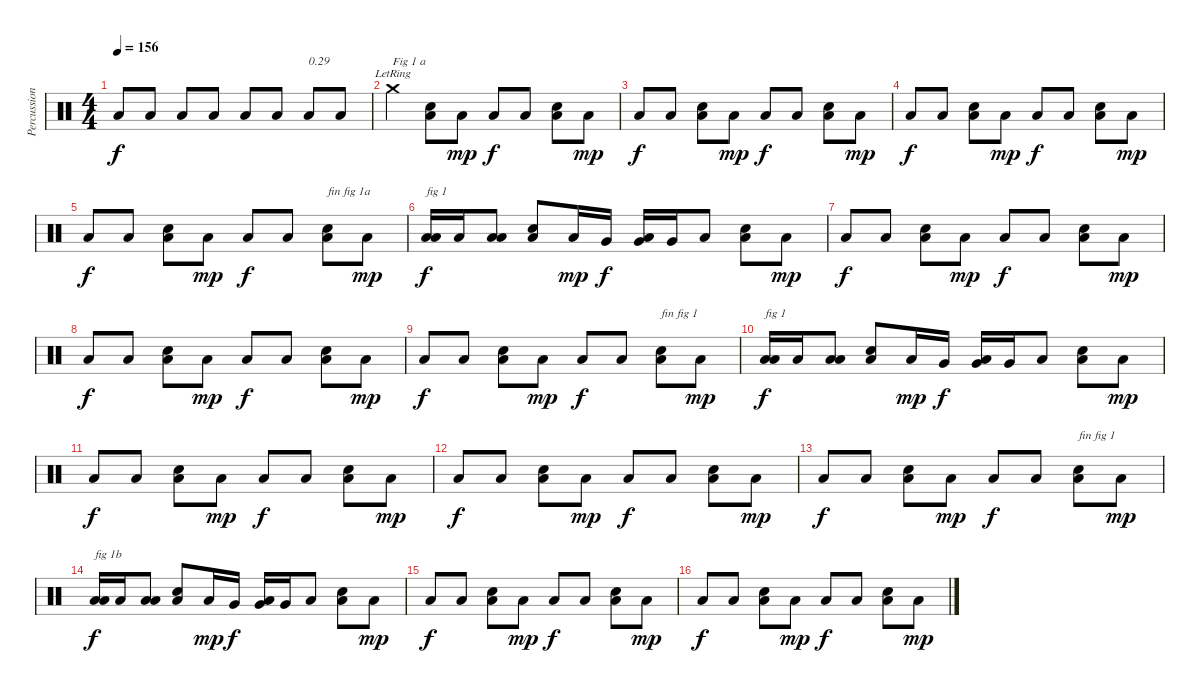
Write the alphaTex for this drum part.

\track ("Percussions" "Percussion") {instrument percussion}
\staff {score}
\articulation defaults
\ts (4 4)
\tempo 156
\clef neutral
\ks c "Low Tom (hit)".8{dy f} "Low Tom (hit)".8 "Low Tom (hit)".8 "Low Tom (hit)".8 "Low Tom (hit)".8 "Low Tom (hit)".8 "Low Tom (hit)".8{txt "0.29"} "Low Tom (hit)".8
|
"Crash medium (hit)"{lr}.4{txt "Fig 1 a"} ("Low Floor Tom (hit)" "Snare (hit) 2").8 "Low Floor Tom (hit)".8{dy mp} "Low Floor Tom (hit)".8{dy f} "Low Floor Tom (hit)".8 ("Low Floor Tom (hit)" "Snare (hit) 2").8 "Low Floor Tom (hit)".8{dy mp} |
"Low Floor Tom (hit)".8{dy f} "Low Floor Tom (hit)".8 ("Low Floor Tom (hit)" "Snare (hit) 2").8 "Low Floor Tom (hit)".8{dy mp} "Low Floor Tom (hit)".8{dy f} "Low Floor Tom (hit)".8 ("Low Floor Tom (hit)" "Snare (hit) 2").8 "Low Floor Tom (hit)".8{dy mp} |
"Low Floor Tom (hit)".8{dy f} "Low Floor Tom (hit)".8 ("Low Floor Tom (hit)" "Snare (hit) 2").8 "Low Floor Tom (hit)".8{dy mp} "Low Floor Tom (hit)".8{dy f} "Low Floor Tom (hit)".8 ("Low Floor Tom (hit)" "Snare (hit) 2").8 "Low Floor Tom (hit)".8{dy mp} |
"Low Floor Tom (hit)".8{dy f} "Low Floor Tom (hit)".8 ("Low Floor Tom (hit)" "Snare (hit) 2").8 "Low Floor Tom (hit)".8{dy mp} "Low Floor Tom (hit)".8{dy f} "Low Floor Tom (hit)".8 ("Low Floor Tom (hit)" "Snare (hit) 2").8{txt "fin fig 1a"} "Low Floor Tom (hit)".8{dy mp} |
("Low Floor Tom (hit)" "Low Tom (hit)").16{txt "fig 1" dy f} "Low Tom (hit)".16 ("Low Floor Tom (hit)" "Low Tom (hit)").8 ("Low Floor Tom (hit)" "Snare (hit) 2").8 "Low Floor Tom (hit)".16{dy mp} "Very Low Tom (hit)".16{dy f} ("Low Floor Tom (hit)" "Very Low Tom (hit)").16 "Very Low Tom (hit)".16 "Low Floor Tom (hit)".8 ("Low Floor Tom (hit)" "Snare (hit) 2").8 "Low Floor Tom (hit)".8{dy mp} |
"Low Floor Tom (hit)".8{dy f} "Low Floor Tom (hit)".8 ("Low Floor Tom (hit)" "Snare (hit) 2").8 "Low Floor Tom (hit)".8{dy mp} "Low Floor Tom (hit)".8{dy f} "Low Floor Tom (hit)".8 ("Low Floor Tom (hit)" "Snare (hit) 2").8 "Low Floor Tom (hit)".8{dy mp} |
"Low Floor Tom (hit)".8{dy f} "Low Floor Tom (hit)".8 ("Low Floor Tom (hit)" "Snare (hit) 2").8 "Low Floor Tom (hit)".8{dy mp} "Low Floor Tom (hit)".8{dy f} "Low Floor Tom (hit)".8 ("Low Floor Tom (hit)" "Snare (hit) 2").8 "Low Floor Tom (hit)".8{dy mp} |
"Low Floor Tom (hit)".8{dy f} "Low Floor Tom (hit)".8 ("Low Floor Tom (hit)" "Snare (hit) 2").8 "Low Floor Tom (hit)".8{dy mp} "Low Floor Tom (hit)".8{dy f} "Low Floor Tom (hit)".8 ("Low Floor Tom (hit)" "Snare (hit) 2").8{txt "fin fig 1"} "Low Floor Tom (hit)".8{dy mp} |
("Low Floor Tom (hit)" "Low Tom (hit)").16{txt "fig 1" dy f} "Low Tom (hit)".16 ("Low Floor Tom (hit)" "Low Tom (hit)").8 ("Low Floor Tom (hit)" "Snare (hit) 2").8 "Low Floor Tom (hit)".16{dy mp} "Very Low Tom (hit)".16{dy f} ("Low Floor Tom (hit)" "Very Low Tom (hit)").16 "Very Low Tom (hit)".16 "Low Floor Tom (hit)".8 ("Low Floor Tom (hit)" "Snare (hit) 2").8 "Low Floor Tom (hit)".8{dy mp} |
"Low Floor Tom (hit)".8{dy f} "Low Floor Tom (hit)".8 ("Low Floor Tom (hit)" "Snare (hit) 2").8 "Low Floor Tom (hit)".8{dy mp} "Low Floor Tom (hit)".8{dy f} "Low Floor Tom (hit)".8 ("Low Floor Tom (hit)" "Snare (hit) 2").8 "Low Floor Tom (hit)".8{dy mp} |
"Low Floor Tom (hit)".8{dy f} "Low Floor Tom (hit)".8 ("Low Floor Tom (hit)" "Snare (hit) 2").8 "Low Floor Tom (hit)".8{dy mp} "Low Floor Tom (hit)".8{dy f} "Low Floor Tom (hit)".8 ("Low Floor Tom (hit)" "Snare (hit) 2").8 "Low Floor Tom (hit)".8{dy mp} |
"Low Floor Tom (hit)".8{dy f} "Low Floor Tom (hit)".8 ("Low Floor Tom (hit)" "Snare (hit) 2").8 "Low Floor Tom (hit)".8{dy mp} "Low Floor Tom (hit)".8{dy f} "Low Floor Tom (hit)".8 ("Low Floor Tom (hit)" "Snare (hit) 2").8{txt "fin fig 1"} "Low Floor Tom (hit)".8{dy mp} |
("Low Floor Tom (hit)" "Low Tom (hit)").16{txt "fig 1b" dy f} "Low Tom (hit)".16 ("Low Floor Tom (hit)" "Low Tom (hit)").8 ("Low Floor Tom (hit)" "Snare (hit) 2").8 "Low Floor Tom (hit)".16{dy mp} "Very Low Tom (hit)".16{dy f} ("Low Floor Tom (hit)" "Very Low Tom (hit)").16 "Very Low Tom (hit)".16 "Low Floor Tom (hit)".8 ("Low Floor Tom (hit)" "Snare (hit) 2").8 "Low Floor Tom (hit)".8{dy mp} |
"Low Floor Tom (hit)".8{dy f} "Low Floor Tom (hit)".8 ("Low Floor Tom (hit)" "Snare (hit) 2").8 "Low Floor Tom (hit)".8{dy mp} "Low Floor Tom (hit)".8{dy f} "Low Floor Tom (hit)".8 ("Low Floor Tom (hit)" "Snare (hit) 2").8 "Low Floor Tom (hit)".8{dy mp} |
"Low Floor Tom (hit)".8{dy f} "Low Floor Tom (hit)".8 ("Low Floor Tom (hit)" "Snare (hit) 2").8 "Low Floor Tom (hit)".8{dy mp} "Low Floor Tom (hit)".8{dy f} "Low Floor Tom (hit)".8 ("Low Floor Tom (hit)" "Snare (hit) 2").8 "Low Floor Tom (hit)".8{dy mp}
